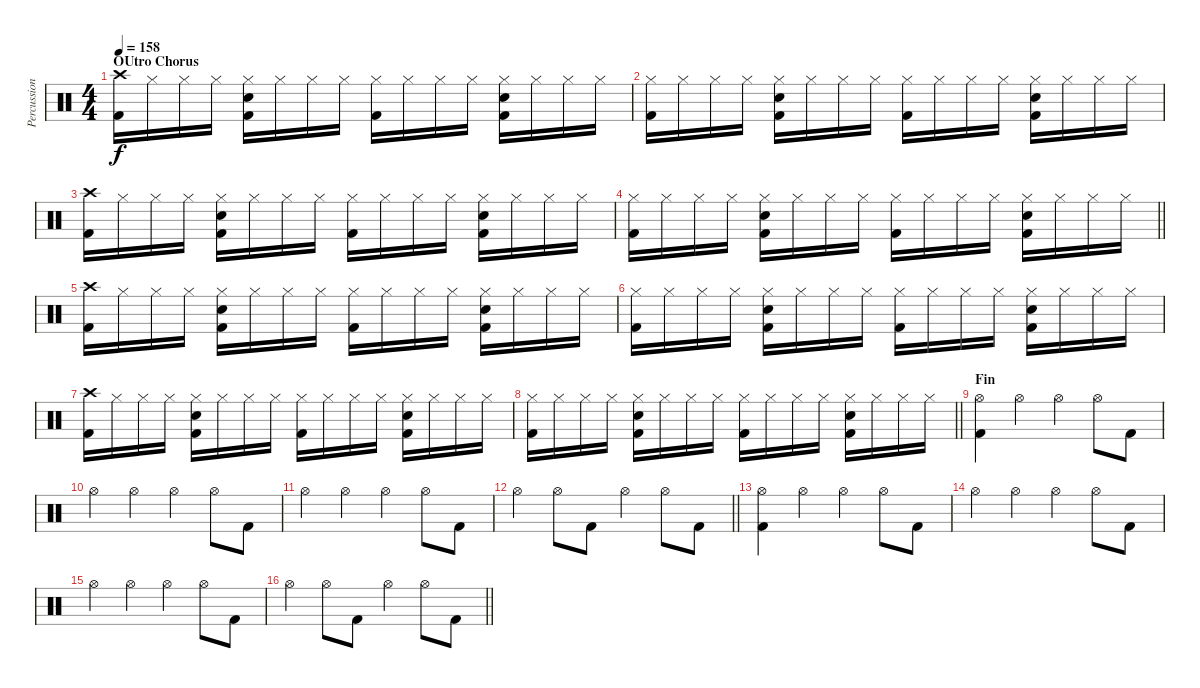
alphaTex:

\track ("Percussion" "Percussion") {instrument percussion}
\staff {score}
\articulation defaults
\ts (4 4)
\section ("" "OUtro Chorus")
\tempo 158
\clef neutral
\ks c
("Crash high (hit)" "Kick (hit) 2").16{dy f} "Hi-Hat (closed)".16 "Hi-Hat (closed)".16 "Hi-Hat (closed)".16 ("Hi-Hat (closed)" "Electric Snare (hit)" "Kick (hit) 2").16 "Hi-Hat (closed)".16 "Hi-Hat (closed)".16 "Hi-Hat (closed)".16 ("Hi-Hat (closed)" "Kick (hit) 2").16 "Hi-Hat (closed)".16 "Hi-Hat (closed)".16 "Hi-Hat (closed)".16 ("Hi-Hat (closed)" "Electric Snare (hit)" "Kick (hit) 2").16 "Hi-Hat (closed)".16 "Hi-Hat (closed)".16 "Hi-Hat (closed)".16 |
("Hi-Hat (closed)" "Kick (hit) 2").16 "Hi-Hat (closed)".16 "Hi-Hat (closed)".16 "Hi-Hat (closed)".16 ("Hi-Hat (closed)" "Electric Snare (hit)" "Kick (hit) 2").16 "Hi-Hat (closed)".16 "Hi-Hat (closed)".16 "Hi-Hat (closed)".16 ("Hi-Hat (closed)" "Kick (hit) 2").16 "Hi-Hat (closed)".16 "Hi-Hat (closed)".16 "Hi-Hat (closed)".16 ("Hi-Hat (closed)" "Electric Snare (hit)" "Kick (hit) 2").16 "Hi-Hat (closed)".16 "Hi-Hat (closed)".16 "Hi-Hat (closed)".16 |
("Crash high (hit)" "Kick (hit) 2").16 "Hi-Hat (closed)".16 "Hi-Hat (closed)".16 "Hi-Hat (closed)".16 ("Hi-Hat (closed)" "Electric Snare (hit)" "Kick (hit) 2").16 "Hi-Hat (closed)".16 "Hi-Hat (closed)".16 "Hi-Hat (closed)".16 ("Hi-Hat (closed)" "Kick (hit) 2").16 "Hi-Hat (closed)".16 "Hi-Hat (closed)".16 "Hi-Hat (closed)".16 ("Hi-Hat (closed)" "Electric Snare (hit)" "Kick (hit) 2").16 "Hi-Hat (closed)".16 "Hi-Hat (closed)".16 "Hi-Hat (closed)".16 |
\barLineRight lightlight
("Hi-Hat (closed)" "Kick (hit) 2").16 "Hi-Hat (closed)".16 "Hi-Hat (closed)".16 "Hi-Hat (closed)".16 ("Hi-Hat (closed)" "Electric Snare (hit)" "Kick (hit) 2").16 "Hi-Hat (closed)".16 "Hi-Hat (closed)".16 "Hi-Hat (closed)".16 ("Hi-Hat (closed)" "Kick (hit) 2").16 "Hi-Hat (closed)".16 "Hi-Hat (closed)".16 "Hi-Hat (closed)".16 ("Hi-Hat (closed)" "Electric Snare (hit)" "Kick (hit) 2").16 "Hi-Hat (closed)".16 "Hi-Hat (closed)".16 "Hi-Hat (closed)".16 |
("Crash high (hit)" "Kick (hit) 2").16 "Hi-Hat (closed)".16 "Hi-Hat (closed)".16 "Hi-Hat (closed)".16 ("Hi-Hat (closed)" "Electric Snare (hit)" "Kick (hit) 2").16 "Hi-Hat (closed)".16 "Hi-Hat (closed)".16 "Hi-Hat (closed)".16 ("Hi-Hat (closed)" "Kick (hit) 2").16 "Hi-Hat (closed)".16 "Hi-Hat (closed)".16 "Hi-Hat (closed)".16 ("Hi-Hat (closed)" "Electric Snare (hit)" "Kick (hit) 2").16 "Hi-Hat (closed)".16 "Hi-Hat (closed)".16 "Hi-Hat (closed)".16 |
("Hi-Hat (closed)" "Kick (hit) 2").16 "Hi-Hat (closed)".16 "Hi-Hat (closed)".16 "Hi-Hat (closed)".16 ("Hi-Hat (closed)" "Electric Snare (hit)" "Kick (hit) 2").16 "Hi-Hat (closed)".16 "Hi-Hat (closed)".16 "Hi-Hat (closed)".16 ("Hi-Hat (closed)" "Kick (hit) 2").16 "Hi-Hat (closed)".16 "Hi-Hat (closed)".16 "Hi-Hat (closed)".16 ("Hi-Hat (closed)" "Electric Snare (hit)" "Kick (hit) 2").16 "Hi-Hat (closed)".16 "Hi-Hat (closed)".16 "Hi-Hat (closed)".16 |
("Crash high (hit)" "Kick (hit) 2").16 "Hi-Hat (closed)".16 "Hi-Hat (closed)".16 "Hi-Hat (closed)".16 ("Hi-Hat (closed)" "Electric Snare (hit)" "Kick (hit) 2").16 "Hi-Hat (closed)".16 "Hi-Hat (closed)".16 "Hi-Hat (closed)".16 ("Hi-Hat (closed)" "Kick (hit) 2").16 "Hi-Hat (closed)".16 "Hi-Hat (closed)".16 "Hi-Hat (closed)".16 ("Hi-Hat (closed)" "Electric Snare (hit)" "Kick (hit) 2").16 "Hi-Hat (closed)".16 "Hi-Hat (closed)".16 "Hi-Hat (closed)".16 |
\barLineRight lightlight
("Hi-Hat (closed)" "Kick (hit) 2").16 "Hi-Hat (closed)".16 "Hi-Hat (closed)".16 "Hi-Hat (closed)".16 ("Hi-Hat (closed)" "Electric Snare (hit)" "Kick (hit) 2").16 "Hi-Hat (closed)".16 "Hi-Hat (closed)".16 "Hi-Hat (closed)".16 ("Hi-Hat (closed)" "Kick (hit) 2").16 "Hi-Hat (closed)".16 "Hi-Hat (closed)".16 "Hi-Hat (closed)".16 ("Hi-Hat (closed)" "Electric Snare (hit)" "Kick (hit) 2").16 "Hi-Hat (closed)".16 "Hi-Hat (closed)".16 "Hi-Hat (closed)".16 |
\section ("" "Fin")
("Hi-Hat (open)" "Kick (hit) 2").4 "Hi-Hat (open)".4 "Hi-Hat (open)".4 "Hi-Hat (open)".8 "Kick (hit) 2".8 |
"Hi-Hat (open)".4 "Hi-Hat (open)".4 "Hi-Hat (open)".4 "Hi-Hat (open)".8 "Kick (hit) 2".8 |
"Hi-Hat (open)".4 "Hi-Hat (open)".4 "Hi-Hat (open)".4 "Hi-Hat (open)".8 "Kick (hit) 2".8 |
\barLineRight lightlight "Hi-Hat (open)".4 "Hi-Hat (open)".8 "Kick (hit) 2".8 "Hi-Hat (open)".4 "Hi-Hat (open)".8 "Kick (hit) 2".8
|
("Hi-Hat (open)" "Kick (hit) 2").4 "Hi-Hat (open)".4 "Hi-Hat (open)".4 "Hi-Hat (open)".8 "Kick (hit) 2".8 |
"Hi-Hat (open)".4 "Hi-Hat (open)".4 "Hi-Hat (open)".4 "Hi-Hat (open)".8 "Kick (hit) 2".8 |
"Hi-Hat (open)".4 "Hi-Hat (open)".4 "Hi-Hat (open)".4 "Hi-Hat (open)".8 "Kick (hit) 2".8 |
\barLineRight lightlight "Hi-Hat (open)".4 "Hi-Hat (open)".8 "Kick (hit) 2".8 "Hi-Hat (open)".4 "Hi-Hat (open)".8 "Kick (hit) 2".8
